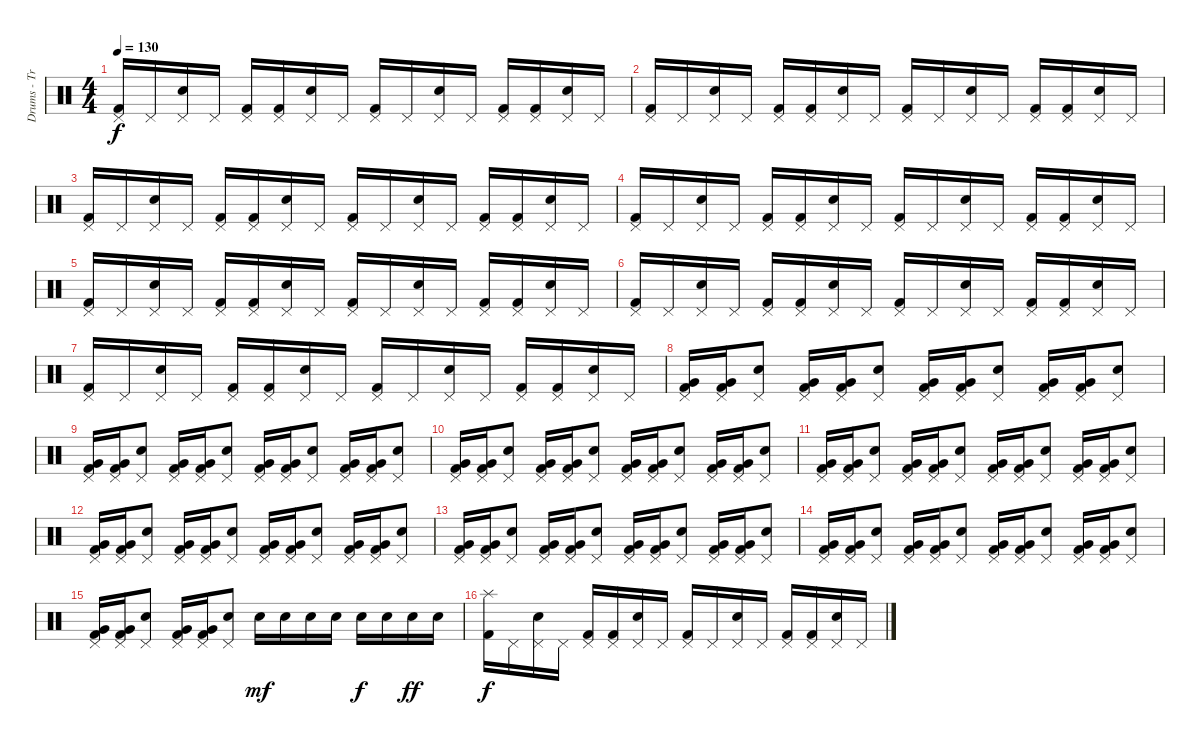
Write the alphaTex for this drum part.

\track ("Drums - Travis Barker" "Drums - Tr") {instrument percussion}
\staff {score}
\articulation defaults
\ts (4 4)
\tempo 130
\clef neutral
\ks c
("Pedal Hi-Hat (hit)" "Kick (hit) 2").16{dy f} "Pedal Hi-Hat (hit)".16 ("Pedal Hi-Hat (hit)" "Electric Snare (hit)").16 "Pedal Hi-Hat (hit)".16 ("Pedal Hi-Hat (hit)" "Kick (hit) 2").16 ("Pedal Hi-Hat (hit)" "Kick (hit) 2").16 ("Pedal Hi-Hat (hit)" "Electric Snare (hit)").16 "Pedal Hi-Hat (hit)".16 ("Pedal Hi-Hat (hit)" "Kick (hit) 2").16 "Pedal Hi-Hat (hit)".16 ("Pedal Hi-Hat (hit)" "Electric Snare (hit)").16 "Pedal Hi-Hat (hit)".16 ("Pedal Hi-Hat (hit)" "Kick (hit) 2").16 ("Pedal Hi-Hat (hit)" "Kick (hit) 2").16 ("Pedal Hi-Hat (hit)" "Electric Snare (hit)").16 "Pedal Hi-Hat (hit)".16 |
("Pedal Hi-Hat (hit)" "Kick (hit) 2").16 "Pedal Hi-Hat (hit)".16 ("Pedal Hi-Hat (hit)" "Electric Snare (hit)").16 "Pedal Hi-Hat (hit)".16 ("Pedal Hi-Hat (hit)" "Kick (hit) 2").16 ("Pedal Hi-Hat (hit)" "Kick (hit) 2").16 ("Pedal Hi-Hat (hit)" "Electric Snare (hit)").16 "Pedal Hi-Hat (hit)".16 ("Pedal Hi-Hat (hit)" "Kick (hit) 2").16 "Pedal Hi-Hat (hit)".16 ("Pedal Hi-Hat (hit)" "Electric Snare (hit)").16 "Pedal Hi-Hat (hit)".16 ("Pedal Hi-Hat (hit)" "Kick (hit) 2").16 ("Pedal Hi-Hat (hit)" "Kick (hit) 2").16 ("Pedal Hi-Hat (hit)" "Electric Snare (hit)").16 "Pedal Hi-Hat (hit)".16 |
("Pedal Hi-Hat (hit)" "Kick (hit) 2").16 "Pedal Hi-Hat (hit)".16 ("Pedal Hi-Hat (hit)" "Electric Snare (hit)").16 "Pedal Hi-Hat (hit)".16 ("Pedal Hi-Hat (hit)" "Kick (hit) 2").16 ("Pedal Hi-Hat (hit)" "Kick (hit) 2").16 ("Pedal Hi-Hat (hit)" "Electric Snare (hit)").16 "Pedal Hi-Hat (hit)".16 ("Pedal Hi-Hat (hit)" "Kick (hit) 2").16 "Pedal Hi-Hat (hit)".16 ("Pedal Hi-Hat (hit)" "Electric Snare (hit)").16 "Pedal Hi-Hat (hit)".16 ("Pedal Hi-Hat (hit)" "Kick (hit) 2").16 ("Pedal Hi-Hat (hit)" "Kick (hit) 2").16 ("Pedal Hi-Hat (hit)" "Electric Snare (hit)").16 "Pedal Hi-Hat (hit)".16 |
("Pedal Hi-Hat (hit)" "Kick (hit) 2").16 "Pedal Hi-Hat (hit)".16 ("Pedal Hi-Hat (hit)" "Electric Snare (hit)").16 "Pedal Hi-Hat (hit)".16 ("Pedal Hi-Hat (hit)" "Kick (hit) 2").16 ("Pedal Hi-Hat (hit)" "Kick (hit) 2").16 ("Pedal Hi-Hat (hit)" "Electric Snare (hit)").16 "Pedal Hi-Hat (hit)".16 ("Pedal Hi-Hat (hit)" "Kick (hit) 2").16 "Pedal Hi-Hat (hit)".16 ("Pedal Hi-Hat (hit)" "Electric Snare (hit)").16 "Pedal Hi-Hat (hit)".16 ("Pedal Hi-Hat (hit)" "Kick (hit) 2").16 ("Pedal Hi-Hat (hit)" "Kick (hit) 2").16 ("Pedal Hi-Hat (hit)" "Electric Snare (hit)").16 "Pedal Hi-Hat (hit)".16 |
("Pedal Hi-Hat (hit)" "Kick (hit) 2").16 "Pedal Hi-Hat (hit)".16 ("Pedal Hi-Hat (hit)" "Electric Snare (hit)").16 "Pedal Hi-Hat (hit)".16 ("Pedal Hi-Hat (hit)" "Kick (hit) 2").16 ("Pedal Hi-Hat (hit)" "Kick (hit) 2").16 ("Pedal Hi-Hat (hit)" "Electric Snare (hit)").16 "Pedal Hi-Hat (hit)".16 ("Pedal Hi-Hat (hit)" "Kick (hit) 2").16 "Pedal Hi-Hat (hit)".16 ("Pedal Hi-Hat (hit)" "Electric Snare (hit)").16 "Pedal Hi-Hat (hit)".16 ("Pedal Hi-Hat (hit)" "Kick (hit) 2").16 ("Pedal Hi-Hat (hit)" "Kick (hit) 2").16 ("Pedal Hi-Hat (hit)" "Electric Snare (hit)").16 "Pedal Hi-Hat (hit)".16 |
("Pedal Hi-Hat (hit)" "Kick (hit) 2").16 "Pedal Hi-Hat (hit)".16 ("Pedal Hi-Hat (hit)" "Electric Snare (hit)").16 "Pedal Hi-Hat (hit)".16 ("Pedal Hi-Hat (hit)" "Kick (hit) 2").16 ("Pedal Hi-Hat (hit)" "Kick (hit) 2").16 ("Pedal Hi-Hat (hit)" "Electric Snare (hit)").16 "Pedal Hi-Hat (hit)".16 ("Pedal Hi-Hat (hit)" "Kick (hit) 2").16 "Pedal Hi-Hat (hit)".16 ("Pedal Hi-Hat (hit)" "Electric Snare (hit)").16 "Pedal Hi-Hat (hit)".16 ("Pedal Hi-Hat (hit)" "Kick (hit) 2").16 ("Pedal Hi-Hat (hit)" "Kick (hit) 2").16 ("Pedal Hi-Hat (hit)" "Electric Snare (hit)").16 "Pedal Hi-Hat (hit)".16 |
("Pedal Hi-Hat (hit)" "Kick (hit) 2").16 "Pedal Hi-Hat (hit)".16 ("Pedal Hi-Hat (hit)" "Electric Snare (hit)").16 "Pedal Hi-Hat (hit)".16 ("Pedal Hi-Hat (hit)" "Kick (hit) 2").16 ("Pedal Hi-Hat (hit)" "Kick (hit) 2").16 ("Pedal Hi-Hat (hit)" "Electric Snare (hit)").16 "Pedal Hi-Hat (hit)".16 ("Pedal Hi-Hat (hit)" "Kick (hit) 2").16 "Pedal Hi-Hat (hit)".16 ("Pedal Hi-Hat (hit)" "Electric Snare (hit)").16 "Pedal Hi-Hat (hit)".16 ("Pedal Hi-Hat (hit)" "Kick (hit) 2").16 ("Pedal Hi-Hat (hit)" "Kick (hit) 2").16 ("Pedal Hi-Hat (hit)" "Electric Snare (hit)").16 "Pedal Hi-Hat (hit)".16 |
("Pedal Hi-Hat (hit)" "Very Low Tom (hit)" "Kick (hit) 2").16 ("Pedal Hi-Hat (hit)" "Very Low Tom (hit)" "Kick (hit) 2").16 ("Pedal Hi-Hat (hit)" "Electric Snare (hit)").8 ("Pedal Hi-Hat (hit)" "Very Low Tom (hit)" "Kick (hit) 2").16 ("Pedal Hi-Hat (hit)" "Very Low Tom (hit)" "Kick (hit) 2").16 ("Pedal Hi-Hat (hit)" "Electric Snare (hit)").8 ("Pedal Hi-Hat (hit)" "Very Low Tom (hit)" "Kick (hit) 2").16 ("Pedal Hi-Hat (hit)" "Very Low Tom (hit)" "Kick (hit) 2").16 ("Pedal Hi-Hat (hit)" "Electric Snare (hit)").8 ("Pedal Hi-Hat (hit)" "Very Low Tom (hit)" "Kick (hit) 2").16 ("Pedal Hi-Hat (hit)" "Very Low Tom (hit)" "Kick (hit) 2").16 ("Pedal Hi-Hat (hit)" "Electric Snare (hit)").8 |
("Pedal Hi-Hat (hit)" "Very Low Tom (hit)" "Kick (hit) 2").16 ("Pedal Hi-Hat (hit)" "Very Low Tom (hit)" "Kick (hit) 2").16 ("Pedal Hi-Hat (hit)" "Electric Snare (hit)").8 ("Pedal Hi-Hat (hit)" "Very Low Tom (hit)" "Kick (hit) 2").16 ("Pedal Hi-Hat (hit)" "Very Low Tom (hit)" "Kick (hit) 2").16 ("Pedal Hi-Hat (hit)" "Electric Snare (hit)").8 ("Pedal Hi-Hat (hit)" "Very Low Tom (hit)" "Kick (hit) 2").16 ("Pedal Hi-Hat (hit)" "Very Low Tom (hit)" "Kick (hit) 2").16 ("Pedal Hi-Hat (hit)" "Electric Snare (hit)").8 ("Pedal Hi-Hat (hit)" "Very Low Tom (hit)" "Kick (hit) 2").16 ("Pedal Hi-Hat (hit)" "Very Low Tom (hit)" "Kick (hit) 2").16 ("Pedal Hi-Hat (hit)" "Electric Snare (hit)").8 |
("Pedal Hi-Hat (hit)" "Very Low Tom (hit)" "Kick (hit) 2").16 ("Pedal Hi-Hat (hit)" "Very Low Tom (hit)" "Kick (hit) 2").16 ("Pedal Hi-Hat (hit)" "Electric Snare (hit)").8 ("Pedal Hi-Hat (hit)" "Very Low Tom (hit)" "Kick (hit) 2").16 ("Pedal Hi-Hat (hit)" "Very Low Tom (hit)" "Kick (hit) 2").16 ("Pedal Hi-Hat (hit)" "Electric Snare (hit)").8 ("Pedal Hi-Hat (hit)" "Very Low Tom (hit)" "Kick (hit) 2").16 ("Pedal Hi-Hat (hit)" "Very Low Tom (hit)" "Kick (hit) 2").16 ("Pedal Hi-Hat (hit)" "Electric Snare (hit)").8 ("Pedal Hi-Hat (hit)" "Very Low Tom (hit)" "Kick (hit) 2").16 ("Pedal Hi-Hat (hit)" "Very Low Tom (hit)" "Kick (hit) 2").16 ("Pedal Hi-Hat (hit)" "Electric Snare (hit)").8 |
("Pedal Hi-Hat (hit)" "Very Low Tom (hit)" "Kick (hit) 2").16 ("Pedal Hi-Hat (hit)" "Very Low Tom (hit)" "Kick (hit) 2").16 ("Pedal Hi-Hat (hit)" "Electric Snare (hit)").8 ("Pedal Hi-Hat (hit)" "Very Low Tom (hit)" "Kick (hit) 2").16 ("Pedal Hi-Hat (hit)" "Very Low Tom (hit)" "Kick (hit) 2").16 ("Pedal Hi-Hat (hit)" "Electric Snare (hit)").8 ("Pedal Hi-Hat (hit)" "Very Low Tom (hit)" "Kick (hit) 2").16 ("Pedal Hi-Hat (hit)" "Very Low Tom (hit)" "Kick (hit) 2").16 ("Pedal Hi-Hat (hit)" "Electric Snare (hit)").8 ("Pedal Hi-Hat (hit)" "Very Low Tom (hit)" "Kick (hit) 2").16 ("Pedal Hi-Hat (hit)" "Very Low Tom (hit)" "Kick (hit) 2").16 ("Pedal Hi-Hat (hit)" "Electric Snare (hit)").8 |
("Pedal Hi-Hat (hit)" "Very Low Tom (hit)" "Kick (hit) 2").16 ("Pedal Hi-Hat (hit)" "Very Low Tom (hit)" "Kick (hit) 2").16 ("Pedal Hi-Hat (hit)" "Electric Snare (hit)").8 ("Pedal Hi-Hat (hit)" "Very Low Tom (hit)" "Kick (hit) 2").16 ("Pedal Hi-Hat (hit)" "Very Low Tom (hit)" "Kick (hit) 2").16 ("Pedal Hi-Hat (hit)" "Electric Snare (hit)").8 ("Pedal Hi-Hat (hit)" "Very Low Tom (hit)" "Kick (hit) 2").16 ("Pedal Hi-Hat (hit)" "Very Low Tom (hit)" "Kick (hit) 2").16 ("Pedal Hi-Hat (hit)" "Electric Snare (hit)").8 ("Pedal Hi-Hat (hit)" "Very Low Tom (hit)" "Kick (hit) 2").16 ("Pedal Hi-Hat (hit)" "Very Low Tom (hit)" "Kick (hit) 2").16 ("Pedal Hi-Hat (hit)" "Electric Snare (hit)").8 |
("Pedal Hi-Hat (hit)" "Very Low Tom (hit)" "Kick (hit) 2").16 ("Pedal Hi-Hat (hit)" "Very Low Tom (hit)" "Kick (hit) 2").16 ("Pedal Hi-Hat (hit)" "Electric Snare (hit)").8 ("Pedal Hi-Hat (hit)" "Very Low Tom (hit)" "Kick (hit) 2").16 ("Pedal Hi-Hat (hit)" "Very Low Tom (hit)" "Kick (hit) 2").16 ("Pedal Hi-Hat (hit)" "Electric Snare (hit)").8 ("Pedal Hi-Hat (hit)" "Very Low Tom (hit)" "Kick (hit) 2").16 ("Pedal Hi-Hat (hit)" "Very Low Tom (hit)" "Kick (hit) 2").16 ("Pedal Hi-Hat (hit)" "Electric Snare (hit)").8 ("Pedal Hi-Hat (hit)" "Very Low Tom (hit)" "Kick (hit) 2").16 ("Pedal Hi-Hat (hit)" "Very Low Tom (hit)" "Kick (hit) 2").16 ("Pedal Hi-Hat (hit)" "Electric Snare (hit)").8 |
("Pedal Hi-Hat (hit)" "Very Low Tom (hit)" "Kick (hit) 2").16 ("Pedal Hi-Hat (hit)" "Very Low Tom (hit)" "Kick (hit) 2").16 ("Pedal Hi-Hat (hit)" "Electric Snare (hit)").8 ("Pedal Hi-Hat (hit)" "Very Low Tom (hit)" "Kick (hit) 2").16 ("Pedal Hi-Hat (hit)" "Very Low Tom (hit)" "Kick (hit) 2").16 ("Pedal Hi-Hat (hit)" "Electric Snare (hit)").8 ("Pedal Hi-Hat (hit)" "Very Low Tom (hit)" "Kick (hit) 2").16 ("Pedal Hi-Hat (hit)" "Very Low Tom (hit)" "Kick (hit) 2").16 ("Pedal Hi-Hat (hit)" "Electric Snare (hit)").8 ("Pedal Hi-Hat (hit)" "Very Low Tom (hit)" "Kick (hit) 2").16 ("Pedal Hi-Hat (hit)" "Very Low Tom (hit)" "Kick (hit) 2").16 ("Pedal Hi-Hat (hit)" "Electric Snare (hit)").8 |
("Pedal Hi-Hat (hit)" "Very Low Tom (hit)" "Kick (hit) 2").16 ("Pedal Hi-Hat (hit)" "Very Low Tom (hit)" "Kick (hit) 2").16 ("Pedal Hi-Hat (hit)" "Electric Snare (hit)").8 ("Pedal Hi-Hat (hit)" "Very Low Tom (hit)" "Kick (hit) 2").16 ("Pedal Hi-Hat (hit)" "Very Low Tom (hit)" "Kick (hit) 2").16 ("Pedal Hi-Hat (hit)" "Electric Snare (hit)").8 "Electric Snare (hit)".16{dy mf} "Electric Snare (hit)".16 "Electric Snare (hit)".16 "Electric Snare (hit)".16 "Electric Snare (hit)".16{dy f} "Electric Snare (hit)".16 "Electric Snare (hit)".16{dy ff} "Electric Snare (hit)".16 |
("Splash (hit)" "Kick (hit) 2").16{dy f} "Pedal Hi-Hat (hit)".16 ("Pedal Hi-Hat (hit)" "Electric Snare (hit)").16 "Pedal Hi-Hat (hit)".16 ("Pedal Hi-Hat (hit)" "Kick (hit) 2").16 ("Pedal Hi-Hat (hit)" "Kick (hit) 2").16 ("Pedal Hi-Hat (hit)" "Electric Snare (hit)").16 "Pedal Hi-Hat (hit)".16 ("Pedal Hi-Hat (hit)" "Kick (hit) 2").16 "Pedal Hi-Hat (hit)".16 ("Pedal Hi-Hat (hit)" "Electric Snare (hit)").16 "Pedal Hi-Hat (hit)".16 ("Pedal Hi-Hat (hit)" "Kick (hit) 2").16 ("Pedal Hi-Hat (hit)" "Kick (hit) 2").16 ("Pedal Hi-Hat (hit)" "Electric Snare (hit)").16 "Pedal Hi-Hat (hit)".16
